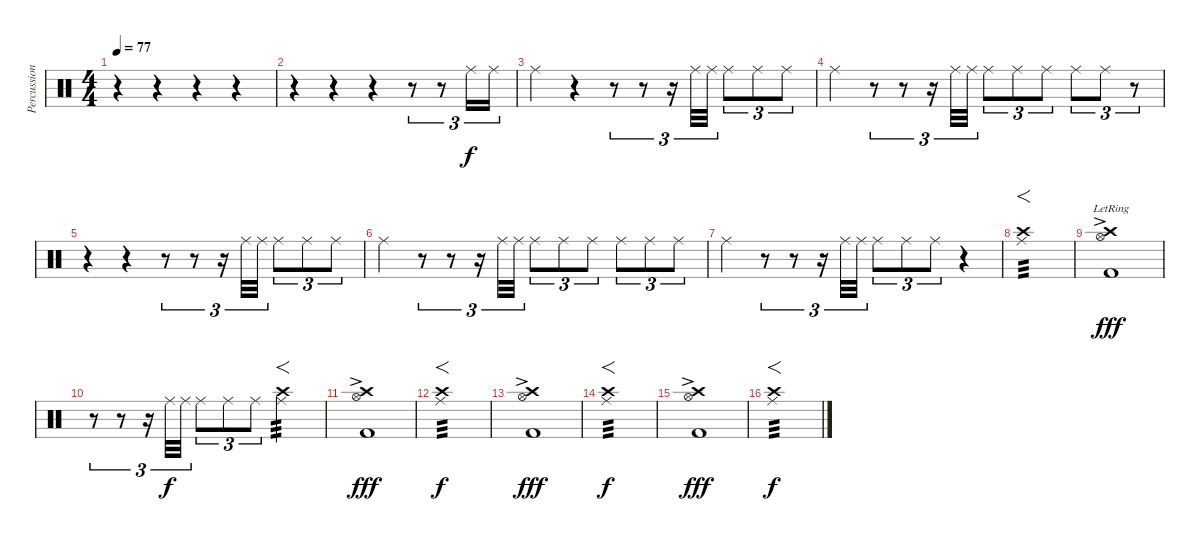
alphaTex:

\track ("Percussion" "Percussion") {instrument percussion}
\staff {score}
\articulation defaults
\ts (4 4)
\tempo 77
\clef neutral
\ks c
r.4{dy f} r.4 r.4 r.4 |
r.4 r.4 r.4 r.8{tu (3 2)} r.8{tu (3 2)} "Ride (middle)".16{tu (3 2)} "Ride (middle)".16{tu (3 2)} |
"Ride (middle)".4 r.4 r.8{tu (3 2)} r.8{tu (3 2)} r.16{tu (3 2)} "Ride (middle)".32{tu (3 2)} "Ride (middle)".32{tu (3 2)} "Ride (middle)".8{tu (3 2)} "Ride (middle)".8{tu (3 2)} "Ride (middle)".8{tu (3 2)} |
"Ride (middle)".4 r.8{tu (3 2)} r.8{tu (3 2)} r.16{tu (3 2)} "Ride (middle)".32{tu (3 2)} "Ride (middle)".32{tu (3 2)} "Ride (middle)".8{tu (3 2)} "Ride (middle)".8{tu (3 2)} "Ride (middle)".8{tu (3 2)} "Ride (middle)".8{tu (3 2)} "Ride (middle)".8{tu (3 2)} r.8{tu (3 2)} |
r.4 r.4 r.8{tu (3 2)} r.8{tu (3 2)} r.16{tu (3 2)} "Ride (middle)".32{tu (3 2)} "Ride (middle)".32{tu (3 2)} "Ride (middle)".8{tu (3 2)} "Ride (middle)".8{tu (3 2)} "Ride (middle)".8{tu (3 2)} |
"Ride (middle)".4 r.8{tu (3 2)} r.8{tu (3 2)} r.16{tu (3 2)} "Ride (middle)".32{tu (3 2)} "Ride (middle)".32{tu (3 2)} "Ride (middle)".8{tu (3 2)} "Ride (middle)".8{tu (3 2)} "Ride (middle)".8{tu (3 2)} "Ride (middle)".8{tu (3 2)} "Ride (middle)".8{tu (3 2)} "Ride (middle)".8{tu (3 2)} |
"Ride (middle)".4 r.8{tu (3 2)} r.8{tu (3 2)} r.16{tu (3 2)} "Ride (middle)".32{tu (3 2)} "Ride (middle)".32{tu (3 2)} "Ride (middle)".8{tu (3 2)} "Ride (middle)".8{tu (3 2)} "Ride (middle)".8{tu (3 2)} r.4 |
("Ride (middle)" "Crash high (hit)").1{f tp 3} |
("Hi-Hat (open)"{ac lr} "Crash high (hit)" "Kick (hit) 2").1{dy fff} |
r.8{tu (3 2)} r.8{tu (3 2)} r.16{tu (3 2)} "Ride (middle)".32{tu (3 2) dy f} "Ride (middle)".32{tu (3 2)} "Ride (middle)".8{tu (3 2)} "Ride (middle)".8{tu (3 2)} "Ride (middle)".8{tu (3 2)} ("Ride (middle)" "Crash high (hit)").2{f tp 3} |
("Hi-Hat (open)"{ac} "Crash high (hit)"{ac} "Kick (hit) 2").1{dy fff} |
("Ride (middle)" "Crash high (hit)").1{f tp 3 dy f} |
("Hi-Hat (open)"{ac} "Crash high (hit)"{ac} "Kick (hit) 2").1{dy fff} |
("Ride (middle)" "Crash high (hit)").1{f tp 3 dy f} |
("Hi-Hat (open)"{ac} "Crash high (hit)"{ac} "Kick (hit) 2").1{dy fff} |
("Ride (middle)" "Crash high (hit)").1{f tp 3 dy f}
